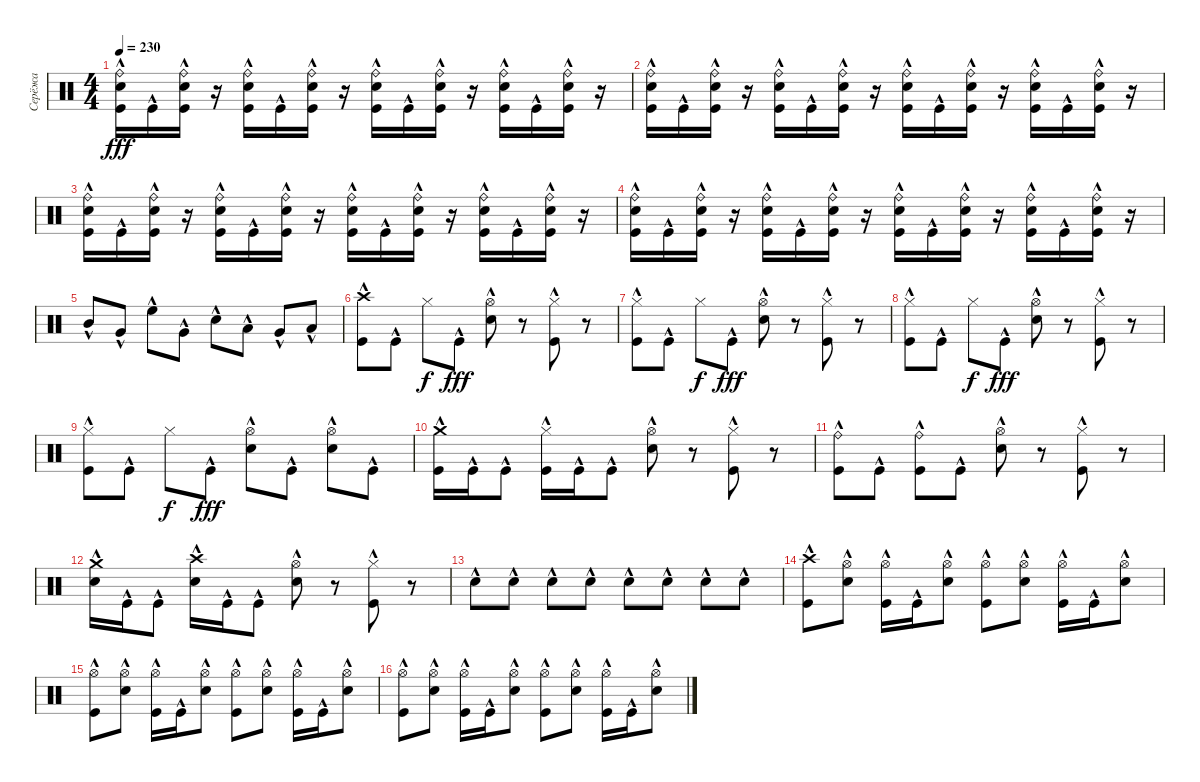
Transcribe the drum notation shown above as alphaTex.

\track ("Серёжа" "Серёжа") {instrument percussion}
\staff {score}
\articulation defaults
\ts (4 4)
\tempo 230
\clef neutral
\ks c
("Ride (bell)" "Snare (hit) 2"{hac} "Kick (hit)"{hac}).16{dy fff} "Kick (hit)"{hac}.16 ("Ride (bell)" "Snare (hit) 2"{hac} "Kick (hit)"{hac}).16 r.16 ("Ride (bell)" "Snare (hit) 2"{hac} "Kick (hit)"{hac}).16 "Kick (hit)"{hac}.16 ("Ride (bell)" "Snare (hit) 2"{hac} "Kick (hit)"{hac}).16 r.16 ("Ride (bell)" "Snare (hit) 2"{hac} "Kick (hit)"{hac}).16 "Kick (hit)"{hac}.16 ("Ride (bell)" "Snare (hit) 2"{hac} "Kick (hit)"{hac}).16 r.16 ("Ride (bell)" "Snare (hit) 2"{hac} "Kick (hit)"{hac}).16 "Kick (hit)"{hac}.16 ("Ride (bell)" "Snare (hit) 2"{hac} "Kick (hit)"{hac}).16 r.16 |
("Ride (bell)" "Snare (hit) 2"{hac} "Kick (hit)"{hac}).16 "Kick (hit)"{hac}.16 ("Ride (bell)" "Snare (hit) 2"{hac} "Kick (hit)"{hac}).16 r.16 ("Ride (bell)" "Snare (hit) 2"{hac} "Kick (hit)"{hac}).16 "Kick (hit)"{hac}.16 ("Ride (bell)" "Snare (hit) 2"{hac} "Kick (hit)"{hac}).16 r.16 ("Ride (bell)" "Snare (hit) 2"{hac} "Kick (hit)"{hac}).16 "Kick (hit)"{hac}.16 ("Ride (bell)" "Snare (hit) 2"{hac} "Kick (hit)"{hac}).16 r.16 ("Ride (bell)" "Snare (hit) 2"{hac} "Kick (hit)"{hac}).16 "Kick (hit)"{hac}.16 ("Ride (bell)" "Snare (hit) 2"{hac} "Kick (hit)"{hac}).16 r.16 |
("Ride (bell)" "Snare (hit) 2"{hac} "Kick (hit)"{hac}).16 "Kick (hit)"{hac}.16 ("Ride (bell)" "Snare (hit) 2"{hac} "Kick (hit)"{hac}).16 r.16 ("Ride (bell)" "Snare (hit) 2"{hac} "Kick (hit)"{hac}).16 "Kick (hit)"{hac}.16 ("Ride (bell)" "Snare (hit) 2"{hac} "Kick (hit)"{hac}).16 r.16 ("Ride (bell)" "Snare (hit) 2"{hac} "Kick (hit)"{hac}).16 "Kick (hit)"{hac}.16 ("Ride (bell)" "Snare (hit) 2"{hac} "Kick (hit)"{hac}).16 r.16 ("Ride (bell)" "Snare (hit) 2"{hac} "Kick (hit)"{hac}).16 "Kick (hit)"{hac}.16 ("Ride (bell)" "Snare (hit) 2"{hac} "Kick (hit)"{hac}).16 r.16 |
("Ride (bell)" "Snare (hit) 2"{hac} "Kick (hit)"{hac}).16 "Kick (hit)"{hac}.16 ("Ride (bell)" "Snare (hit) 2"{hac} "Kick (hit)"{hac}).16 r.16 ("Ride (bell)" "Snare (hit) 2"{hac} "Kick (hit)"{hac}).16 "Kick (hit)"{hac}.16 ("Ride (bell)" "Snare (hit) 2"{hac} "Kick (hit)"{hac}).16 r.16 ("Ride (bell)" "Snare (hit) 2"{hac} "Kick (hit)"{hac}).16 "Kick (hit)"{hac}.16 ("Ride (bell)" "Snare (hit) 2"{hac} "Kick (hit)"{hac}).16 r.16 ("Ride (bell)" "Snare (hit) 2"{hac} "Kick (hit)"{hac}).16 "Kick (hit)"{hac}.16 ("Ride (bell)" "Snare (hit) 2"{hac} "Kick (hit)"{hac}).16 r.16 |
"Mid Tom (hit)"{hac}.8 "Very Low Tom (hit)"{hac}.8 "High Floor Tom (hit)"{hac}.8 "Very Low Tom (hit)"{hac}.8 "Snare (hit) 2"{hac}.8 "Low Tom (hit)"{hac}.8 "Very Low Tom (hit)"{hac}.8 "Low Tom (hit)"{hac}.8 |
("Crash high (hit)"{hac} "Kick (hit)"{hac}).8 "Kick (hit)"{hac}.8 "Hi-Hat (closed)".8{dy f} "Kick (hit)"{hac}.8{dy fff} ("Hi-Hat (open)" "Snare (hit) 2"{hac}).8 r.8 ("Hi-Hat (closed)" "Kick (hit)"{hac}).8 r.8 |
("Hi-Hat (closed)" "Kick (hit)"{hac}).8 "Kick (hit)"{hac}.8 "Hi-Hat (closed)".8{dy f} "Kick (hit)"{hac}.8{dy fff} ("Hi-Hat (open)" "Snare (hit) 2"{hac}).8 r.8 ("Hi-Hat (closed)" "Kick (hit)"{hac}).8 r.8 |
("Hi-Hat (closed)" "Kick (hit)"{hac}).8 "Kick (hit)"{hac}.8 "Hi-Hat (closed)".8{dy f} "Kick (hit)"{hac}.8{dy fff} ("Hi-Hat (open)" "Snare (hit) 2"{hac}).8 r.8 ("Hi-Hat (closed)" "Kick (hit)"{hac}).8 r.8 |
("Hi-Hat (closed)" "Kick (hit)"{hac}).8 "Kick (hit)"{hac}.8 "Hi-Hat (closed)".8{dy f} "Kick (hit)"{hac}.8{dy fff} ("Hi-Hat (open)" "Snare (hit) 2"{hac}).8 "Kick (hit)"{hac}.8 ("Hi-Hat (open)"{hac} "Snare (hit) 2"{hac}).8 "Kick (hit)"{hac}.8 |
("Crash medium (hit)" "Kick (hit)"{hac}).16 "Kick (hit)"{hac}.16 "Kick (hit)"{hac}.8 ("Hi-Hat (closed)" "Kick (hit)"{hac}).16 "Kick (hit)"{hac}.16 "Kick (hit)"{hac}.8 ("Hi-Hat (open)" "Snare (hit) 2"{hac}).8 r.8 ("Hi-Hat (closed)" "Kick (hit)"{hac}).8 r.8 |
("Ride (bell)" "Kick (hit)"{hac}).8 "Kick (hit)"{hac}.8 ("Ride (bell)" "Kick (hit)"{hac}).8 "Kick (hit)"{hac}.8 ("Hi-Hat (open)" "Snare (hit) 2"{hac}).8 r.8 ("Hi-Hat (closed)" "Kick (hit)"{hac}).8 r.8 |
("Crash medium (hit)" "Snare (hit) 2"{hac}).16 "Kick (hit)"{hac}.16 "Kick (hit)"{hac}.8 ("Crash high (hit)" "Snare (hit) 2"{hac}).16 "Kick (hit)"{hac}.16 "Kick (hit)"{hac}.8 ("Hi-Hat (open)" "Snare (hit) 2"{hac}).8 r.8 ("Hi-Hat (closed)" "Kick (hit)"{hac}).8 r.8 |
"Snare (hit) 2"{hac}.8 "Snare (hit) 2"{hac}.8 "Snare (hit) 2"{hac}.8 "Snare (hit) 2"{hac}.8 "Snare (hit) 2"{hac}.8 "Snare (hit) 2"{hac}.8 "Snare (hit) 2"{hac}.8 "Snare (hit) 2"{hac}.8 |
("Crash high (hit)"{hac} "Kick (hit)"{hac}).8 ("Hi-Hat (open)" "Snare (hit) 2"{hac}).8 ("Hi-Hat (open)" "Kick (hit)"{hac}).16 "Kick (hit)"{hac}.16 ("Hi-Hat (open)" "Snare (hit) 2"{hac}).8 ("Hi-Hat (open)" "Kick (hit)"{hac}).8 ("Hi-Hat (open)" "Snare (hit) 2"{hac}).8 ("Hi-Hat (open)" "Kick (hit)"{hac}).16 "Kick (hit)"{hac}.16 ("Hi-Hat (open)" "Snare (hit) 2"{hac}).8 |
("Hi-Hat (open)" "Kick (hit)"{hac}).8 ("Hi-Hat (open)" "Snare (hit) 2"{hac}).8 ("Hi-Hat (open)" "Kick (hit)"{hac}).16 "Kick (hit)"{hac}.16 ("Hi-Hat (open)" "Snare (hit) 2"{hac}).8 ("Hi-Hat (open)" "Kick (hit)"{hac}).8 ("Hi-Hat (open)" "Snare (hit) 2"{hac}).8 ("Hi-Hat (open)" "Kick (hit)"{hac}).16 "Kick (hit)"{hac}.16 ("Hi-Hat (open)" "Snare (hit) 2"{hac}).8 |
("Hi-Hat (open)" "Kick (hit)"{hac}).8 ("Hi-Hat (open)" "Snare (hit) 2"{hac}).8 ("Hi-Hat (open)" "Kick (hit)"{hac}).16 "Kick (hit)"{hac}.16 ("Hi-Hat (open)" "Snare (hit) 2"{hac}).8 ("Hi-Hat (open)" "Kick (hit)"{hac}).8 ("Hi-Hat (open)" "Snare (hit) 2"{hac}).8 ("Hi-Hat (open)" "Kick (hit)"{hac}).16 "Kick (hit)"{hac}.16 ("Hi-Hat (open)" "Snare (hit) 2"{hac}).8
